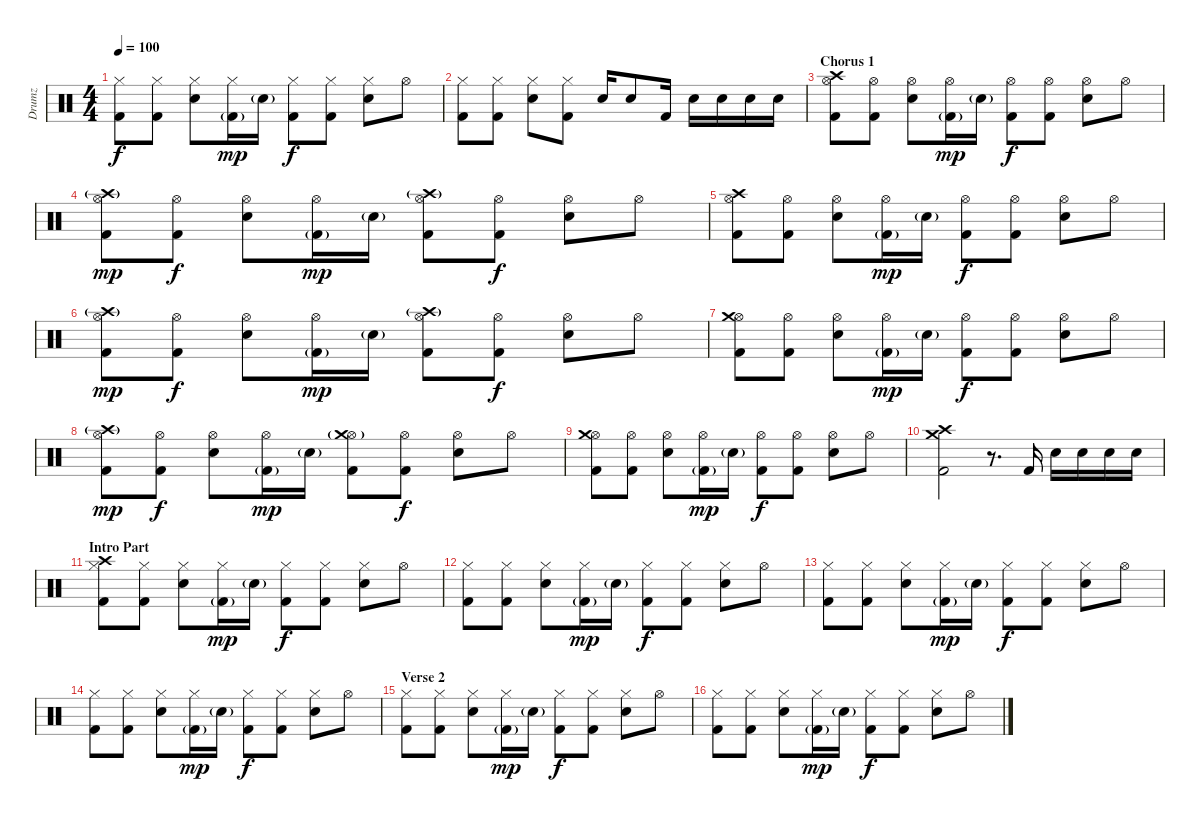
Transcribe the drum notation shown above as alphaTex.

\track ("Drumz" "Drumz") {instrument percussion}
\staff {score}
\articulation defaults
\ts (4 4)
\tempo 100
\clef neutral
\ks c
("Hi-Hat (closed)" "Kick (hit) 2").8{dy f} ("Hi-Hat (closed)" "Kick (hit) 2").8 ("Hi-Hat (closed)" "Electric Snare (hit)").8 ("Hi-Hat (closed)" "Kick (hit) 2"{g}).16{dy mp} "Electric Snare (hit)"{g}.16 ("Hi-Hat (closed)" "Kick (hit) 2").8{dy f} ("Hi-Hat (closed)" "Kick (hit) 2").8 ("Hi-Hat (closed)" "Electric Snare (hit)").8 "Hi-Hat (open)".8 |
("Hi-Hat (closed)" "Kick (hit) 2").8 ("Hi-Hat (closed)" "Kick (hit) 2").8 ("Hi-Hat (closed)" "Electric Snare (hit)").8 ("Hi-Hat (closed)" "Kick (hit) 2").8 "Electric Snare (hit)".16 "Electric Snare (hit)".8 "Kick (hit) 2".16 "Electric Snare (hit)".16 "Electric Snare (hit)".16 "Electric Snare (hit)".16 "Electric Snare (hit)".16 |
\section ("" "Chorus 1")
("Hi-Hat (open)" "Crash high (hit)" "Kick (hit) 2").8 ("Hi-Hat (open)" "Kick (hit) 2").8 ("Hi-Hat (open)" "Electric Snare (hit)").8 ("Hi-Hat (open)" "Kick (hit) 2"{g}).16{dy mp} "Electric Snare (hit)"{g}.16 ("Hi-Hat (open)" "Kick (hit) 2").8{dy f} ("Hi-Hat (open)" "Kick (hit) 2").8 ("Hi-Hat (open)" "Electric Snare (hit)").8 "Hi-Hat (open)".8 |
("Hi-Hat (open)" "Crash high (hit)"{g} "Kick (hit) 2").8{dy mp} ("Hi-Hat (open)" "Kick (hit) 2").8{dy f} ("Hi-Hat (open)" "Electric Snare (hit)").8 ("Hi-Hat (open)" "Kick (hit) 2"{g}).16{dy mp} "Electric Snare (hit)"{g}.16 ("Hi-Hat (open)" "Crash high (hit)"{g} "Kick (hit) 2").8 ("Hi-Hat (open)" "Kick (hit) 2").8{dy f} ("Hi-Hat (open)" "Electric Snare (hit)").8 "Hi-Hat (open)".8 |
("Hi-Hat (open)" "Crash high (hit)" "Kick (hit) 2").8 ("Hi-Hat (open)" "Kick (hit) 2").8 ("Hi-Hat (open)" "Electric Snare (hit)").8 ("Hi-Hat (open)" "Kick (hit) 2"{g}).16{dy mp} "Electric Snare (hit)"{g}.16 ("Hi-Hat (open)" "Kick (hit) 2").8{dy f} ("Hi-Hat (open)" "Kick (hit) 2").8 ("Hi-Hat (open)" "Electric Snare (hit)").8 "Hi-Hat (open)".8 |
("Hi-Hat (open)" "Crash high (hit)"{g} "Kick (hit) 2").8{dy mp} ("Hi-Hat (open)" "Kick (hit) 2").8{dy f} ("Hi-Hat (open)" "Electric Snare (hit)").8 ("Hi-Hat (open)" "Kick (hit) 2"{g}).16{dy mp} "Electric Snare (hit)"{g}.16 ("Hi-Hat (open)" "Crash high (hit)"{g} "Kick (hit) 2").8 ("Hi-Hat (open)" "Kick (hit) 2").8{dy f} ("Hi-Hat (open)" "Electric Snare (hit)").8 "Hi-Hat (open)".8 |
("Hi-Hat (open)" "Crash medium (hit)" "Kick (hit) 2").8 ("Hi-Hat (open)" "Kick (hit) 2").8 ("Hi-Hat (open)" "Electric Snare (hit)").8 ("Hi-Hat (open)" "Kick (hit) 2"{g}).16{dy mp} "Electric Snare (hit)"{g}.16 ("Hi-Hat (open)" "Kick (hit) 2").8{dy f} ("Hi-Hat (open)" "Kick (hit) 2").8 ("Hi-Hat (open)" "Electric Snare (hit)").8 "Hi-Hat (open)".8 |
("Hi-Hat (open)" "Crash high (hit)"{g} "Kick (hit) 2").8{dy mp} ("Hi-Hat (open)" "Kick (hit) 2").8{dy f} ("Hi-Hat (open)" "Electric Snare (hit)").8 ("Hi-Hat (open)" "Kick (hit) 2"{g}).16{dy mp} "Electric Snare (hit)"{g}.16 ("Hi-Hat (open)" "Crash medium (hit)"{g} "Kick (hit) 2").8 ("Hi-Hat (open)" "Kick (hit) 2").8{dy f} ("Hi-Hat (open)" "Electric Snare (hit)").8 "Hi-Hat (open)".8 |
("Hi-Hat (open)" "Crash medium (hit)" "Kick (hit) 2").8 ("Hi-Hat (open)" "Kick (hit) 2").8 ("Hi-Hat (open)" "Electric Snare (hit)").8 ("Hi-Hat (open)" "Kick (hit) 2"{g}).16{dy mp} "Electric Snare (hit)"{g}.16 ("Hi-Hat (open)" "Kick (hit) 2").8{dy f} ("Hi-Hat (open)" "Kick (hit) 2").8 ("Hi-Hat (open)" "Electric Snare (hit)").8 "Hi-Hat (open)".8 |
("Crash high (hit)" "Crash medium (hit)" "Kick (hit) 2").2 r.8{d} "Kick (hit) 2".16 "Electric Snare (hit)".16 "Electric Snare (hit)".16 "Electric Snare (hit)".16 "Electric Snare (hit)".16 |
\section ("" "Intro Part")
("Hi-Hat (closed)" "Crash high (hit)" "Kick (hit) 2").8 ("Hi-Hat (closed)" "Kick (hit) 2").8 ("Hi-Hat (closed)" "Electric Snare (hit)").8 ("Hi-Hat (closed)" "Kick (hit) 2"{g}).16{dy mp} "Electric Snare (hit)"{g}.16 ("Hi-Hat (closed)" "Kick (hit) 2").8{dy f} ("Hi-Hat (closed)" "Kick (hit) 2").8 ("Hi-Hat (closed)" "Electric Snare (hit)").8 "Hi-Hat (open)".8 |
("Hi-Hat (closed)" "Kick (hit) 2").8 ("Hi-Hat (closed)" "Kick (hit) 2").8 ("Hi-Hat (closed)" "Electric Snare (hit)").8 ("Hi-Hat (closed)" "Kick (hit) 2"{g}).16{dy mp} "Electric Snare (hit)"{g}.16 ("Hi-Hat (closed)" "Kick (hit) 2").8{dy f} ("Hi-Hat (closed)" "Kick (hit) 2").8 ("Hi-Hat (closed)" "Electric Snare (hit)").8 "Hi-Hat (open)".8 |
("Hi-Hat (closed)" "Kick (hit) 2").8 ("Hi-Hat (closed)" "Kick (hit) 2").8 ("Hi-Hat (closed)" "Electric Snare (hit)").8 ("Hi-Hat (closed)" "Kick (hit) 2"{g}).16{dy mp} "Electric Snare (hit)"{g}.16 ("Hi-Hat (closed)" "Kick (hit) 2").8{dy f} ("Hi-Hat (closed)" "Kick (hit) 2").8 ("Hi-Hat (closed)" "Electric Snare (hit)").8 "Hi-Hat (open)".8 |
("Hi-Hat (closed)" "Kick (hit) 2").8 ("Hi-Hat (closed)" "Kick (hit) 2").8 ("Hi-Hat (closed)" "Electric Snare (hit)").8 ("Hi-Hat (closed)" "Kick (hit) 2"{g}).16{dy mp} "Electric Snare (hit)"{g}.16 ("Hi-Hat (closed)" "Kick (hit) 2").8{dy f} ("Hi-Hat (closed)" "Kick (hit) 2").8 ("Hi-Hat (closed)" "Electric Snare (hit)").8 "Hi-Hat (open)".8 |
\section ("" "Verse 2")
("Hi-Hat (closed)" "Kick (hit) 2").8 ("Hi-Hat (closed)" "Kick (hit) 2").8 ("Hi-Hat (closed)" "Electric Snare (hit)").8 ("Hi-Hat (closed)" "Kick (hit) 2"{g}).16{dy mp} "Electric Snare (hit)"{g}.16 ("Hi-Hat (closed)" "Kick (hit) 2").8{dy f} ("Hi-Hat (closed)" "Kick (hit) 2").8 ("Hi-Hat (closed)" "Electric Snare (hit)").8 "Hi-Hat (open)".8 |
("Hi-Hat (closed)" "Kick (hit) 2").8 ("Hi-Hat (closed)" "Kick (hit) 2").8 ("Hi-Hat (closed)" "Electric Snare (hit)").8 ("Hi-Hat (closed)" "Kick (hit) 2"{g}).16{dy mp} "Electric Snare (hit)"{g}.16 ("Hi-Hat (closed)" "Kick (hit) 2").8{dy f} ("Hi-Hat (closed)" "Kick (hit) 2").8 ("Hi-Hat (closed)" "Electric Snare (hit)").8 "Hi-Hat (open)".8
